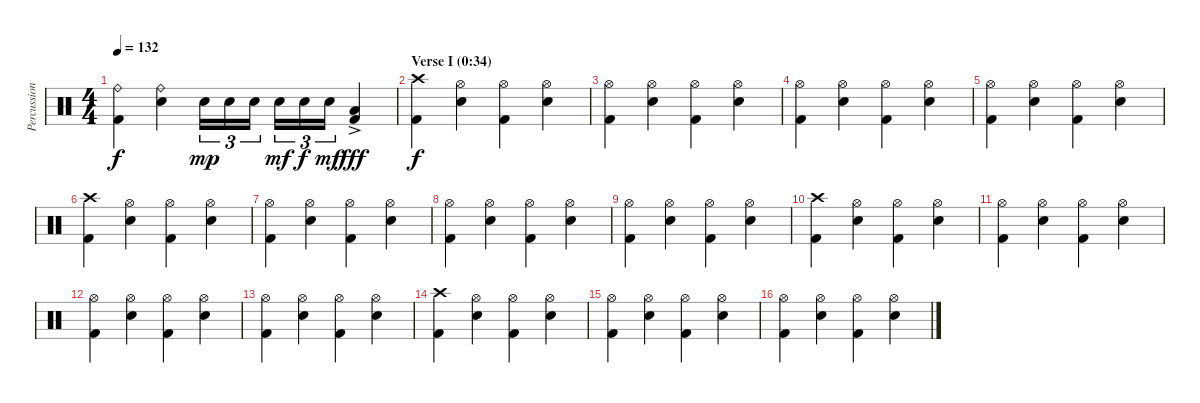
\track ("Percussion" "Percussion") {instrument percussion}
\staff {score}
\articulation defaults
\ts (4 4)
\tempo 132
\clef neutral
\ks c
("Kick (hit) 2" "Ride (bell)").4{dy f} ("Electric Snare (hit)" "Ride (bell)").4 "Electric Snare (hit)".16{tu (3 2) dy mp} "Electric Snare (hit)".16{tu (3 2)} "Electric Snare (hit)".16{tu (3 2)} "Electric Snare (hit)".16{tu (3 2) dy mf} "Electric Snare (hit)".16{tu (3 2) dy f} "Electric Snare (hit)".16{tu (3 2) dy mf} ("Kick (hit) 2" "Low Tom (hit)"{ac}).4{dy fff} |
\section ("" "Verse I (0:34)")
("Kick (hit) 2" "Crash high (hit)").4{dy f} ("Electric Snare (hit)" "Hi-Hat (open)").4 ("Kick (hit) 2" "Hi-Hat (open)").4 ("Electric Snare (hit)" "Hi-Hat (open)").4 |
("Kick (hit) 2" "Hi-Hat (open)").4 ("Electric Snare (hit)" "Hi-Hat (open)").4 ("Kick (hit) 2" "Hi-Hat (open)").4 ("Electric Snare (hit)" "Hi-Hat (open)").4 |
("Kick (hit) 2" "Hi-Hat (open)").4 ("Electric Snare (hit)" "Hi-Hat (open)").4 ("Kick (hit) 2" "Hi-Hat (open)").4 ("Electric Snare (hit)" "Hi-Hat (open)").4 |
("Kick (hit) 2" "Hi-Hat (open)").4 ("Electric Snare (hit)" "Hi-Hat (open)").4 ("Kick (hit) 2" "Hi-Hat (open)").4 ("Electric Snare (hit)" "Hi-Hat (open)").4 |
("Kick (hit) 2" "Crash high (hit)").4 ("Electric Snare (hit)" "Hi-Hat (open)").4 ("Kick (hit) 2" "Hi-Hat (open)").4 ("Electric Snare (hit)" "Hi-Hat (open)").4 |
("Kick (hit) 2" "Hi-Hat (open)").4 ("Electric Snare (hit)" "Hi-Hat (open)").4 ("Kick (hit) 2" "Hi-Hat (open)").4 ("Electric Snare (hit)" "Hi-Hat (open)").4 |
("Kick (hit) 2" "Hi-Hat (open)").4 ("Electric Snare (hit)" "Hi-Hat (open)").4 ("Kick (hit) 2" "Hi-Hat (open)").4 ("Electric Snare (hit)" "Hi-Hat (open)").4 |
("Kick (hit) 2" "Hi-Hat (open)").4 ("Electric Snare (hit)" "Hi-Hat (open)").4 ("Kick (hit) 2" "Hi-Hat (open)").4 ("Electric Snare (hit)" "Hi-Hat (open)").4 |
("Kick (hit) 2" "Crash high (hit)").4 ("Electric Snare (hit)" "Hi-Hat (open)").4 ("Kick (hit) 2" "Hi-Hat (open)").4 ("Electric Snare (hit)" "Hi-Hat (open)").4 |
("Kick (hit) 2" "Hi-Hat (open)").4 ("Electric Snare (hit)" "Hi-Hat (open)").4 ("Kick (hit) 2" "Hi-Hat (open)").4 ("Electric Snare (hit)" "Hi-Hat (open)").4 |
("Kick (hit) 2" "Hi-Hat (open)").4 ("Electric Snare (hit)" "Hi-Hat (open)").4 ("Kick (hit) 2" "Hi-Hat (open)").4 ("Electric Snare (hit)" "Hi-Hat (open)").4 |
("Kick (hit) 2" "Hi-Hat (open)").4 ("Electric Snare (hit)" "Hi-Hat (open)").4 ("Kick (hit) 2" "Hi-Hat (open)").4 ("Electric Snare (hit)" "Hi-Hat (open)").4 |
("Kick (hit) 2" "Crash high (hit)").4 ("Electric Snare (hit)" "Hi-Hat (open)").4 ("Kick (hit) 2" "Hi-Hat (open)").4 ("Electric Snare (hit)" "Hi-Hat (open)").4 |
("Kick (hit) 2" "Hi-Hat (open)").4 ("Electric Snare (hit)" "Hi-Hat (open)").4 ("Kick (hit) 2" "Hi-Hat (open)").4 ("Electric Snare (hit)" "Hi-Hat (open)").4 |
("Kick (hit) 2" "Hi-Hat (open)").4 ("Electric Snare (hit)" "Hi-Hat (open)").4 ("Kick (hit) 2" "Hi-Hat (open)").4 ("Electric Snare (hit)" "Hi-Hat (open)").4
